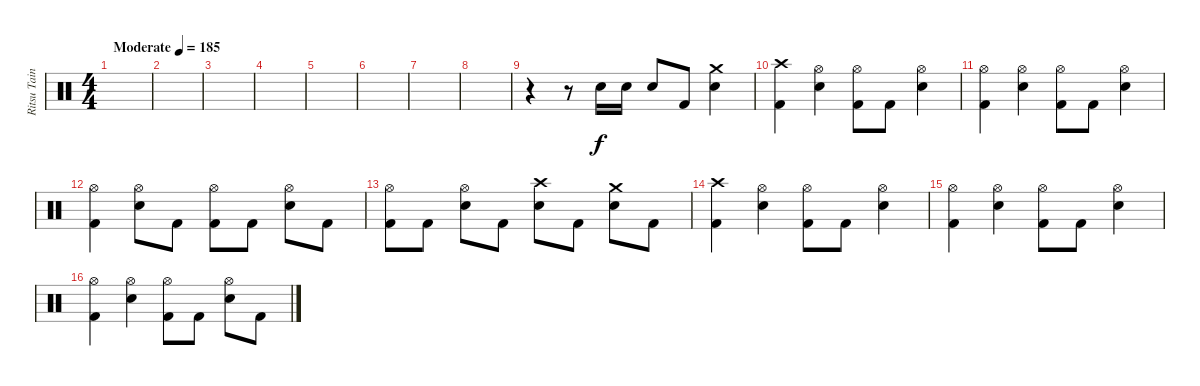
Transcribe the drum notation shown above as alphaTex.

\track ("Ritsu Tainaka" "Ritsu Tain") {instrument percussion}
\staff {score}
\articulation defaults
\ts (4 4)
\tempo (185 "Moderate")
\clef neutral
\ks c
|
|
|
|
|
|
|
|
r.4 r.8 "Snare (hit) 2".16 "Snare (hit) 2".16 "Snare (hit) 2".8 "Kick (hit) 2".8 ("Crash medium (hit)" "Snare (hit) 2").4 |
("Crash high (hit)" "Kick (hit) 2").4 ("Hi-Hat (open)" "Snare (hit) 2").4 ("Hi-Hat (open)" "Kick (hit) 2").8 "Kick (hit) 2".8 ("Hi-Hat (open)" "Snare (hit) 2").4 |
("Hi-Hat (open)" "Kick (hit) 2").4 ("Hi-Hat (open)" "Snare (hit) 2").4 ("Hi-Hat (open)" "Kick (hit) 2").8 "Kick (hit) 2".8 ("Hi-Hat (open)" "Snare (hit) 2").4 |
("Hi-Hat (open)" "Kick (hit) 2").4 ("Hi-Hat (open)" "Snare (hit) 2").8 "Kick (hit) 2".8 ("Hi-Hat (open)" "Kick (hit) 2").8 "Kick (hit) 2".8 ("Hi-Hat (open)" "Snare (hit) 2").8 "Kick (hit) 2".8 |
("Hi-Hat (open)" "Kick (hit) 2").8 "Kick (hit) 2".8 ("Hi-Hat (open)" "Snare (hit) 2").8 "Kick (hit) 2".8 ("Crash high (hit)" "Snare (hit) 2").8 "Kick (hit) 2".8 ("Crash medium (hit)" "Snare (hit) 2").8 "Kick (hit) 2".8 |
("Crash high (hit)" "Kick (hit) 2").4 ("Hi-Hat (open)" "Snare (hit) 2").4 ("Hi-Hat (open)" "Kick (hit) 2").8 "Kick (hit) 2".8 ("Hi-Hat (open)" "Snare (hit) 2").4 |
("Hi-Hat (open)" "Kick (hit) 2").4 ("Hi-Hat (open)" "Snare (hit) 2").4 ("Hi-Hat (open)" "Kick (hit) 2").8 "Kick (hit) 2".8 ("Hi-Hat (open)" "Snare (hit) 2").4 |
("Hi-Hat (open)" "Kick (hit) 2").4 ("Hi-Hat (open)" "Snare (hit) 2").4 ("Hi-Hat (open)" "Kick (hit) 2").8 "Kick (hit) 2".8 ("Hi-Hat (open)" "Snare (hit) 2").8 "Kick (hit) 2".8
